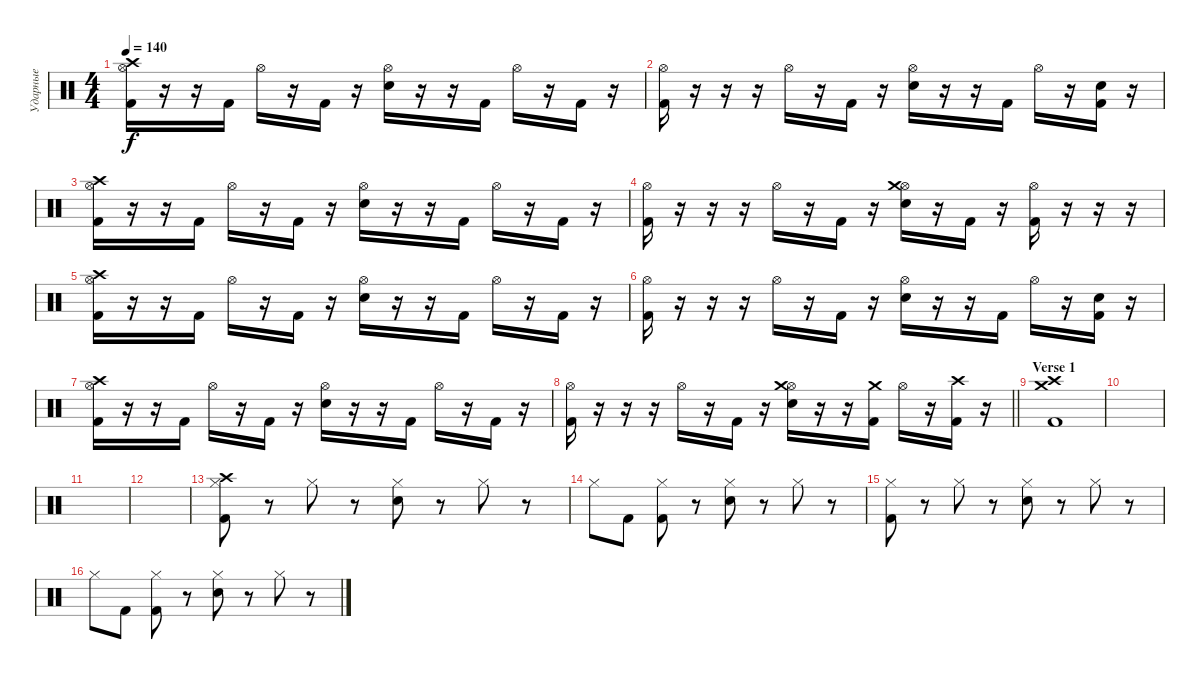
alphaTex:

\track ("Ударные" "Ударные") {instrument percussion}
\staff {score}
\articulation defaults
\ts (4 4)
\tempo 140
\clef neutral
\ks c
("Hi-Hat (open)" "Crash high (hit)" "Kick (hit) 2").16{dy f} r.16 r.16 "Kick (hit) 2".16 "Hi-Hat (open)".16 r.16 "Kick (hit) 2".16 r.16 ("Hi-Hat (open)" "Snare (hit) 2").16 r.16 r.16 "Kick (hit) 2".16 "Hi-Hat (open)".16 r.16 "Kick (hit) 2".16 r.16 |
("Hi-Hat (open)" "Kick (hit) 2").16 r.16 r.16 r.16 "Hi-Hat (open)".16 r.16 "Kick (hit) 2".16 r.16 ("Hi-Hat (open)" "Snare (hit) 2").16 r.16 r.16 "Kick (hit) 2".16 "Hi-Hat (open)".16 r.16 ("Snare (hit) 2" "Kick (hit) 2").16 r.16 |
("Hi-Hat (open)" "Crash high (hit)" "Kick (hit) 2").16 r.16 r.16 "Kick (hit) 2".16 "Hi-Hat (open)".16 r.16 "Kick (hit) 2".16 r.16 ("Hi-Hat (open)" "Snare (hit) 2").16 r.16 r.16 "Kick (hit) 2".16 "Hi-Hat (open)".16 r.16 "Kick (hit) 2".16 r.16 |
("Hi-Hat (open)" "Kick (hit) 2").16 r.16 r.16 r.16 "Hi-Hat (open)".16 r.16 "Kick (hit) 2".16 r.16 ("Hi-Hat (open)" "Crash medium (hit)" "Snare (hit) 2").16 r.16 "Kick (hit) 2".16 r.16 ("Hi-Hat (open)" "Kick (hit) 2").16 r.16 r.16 r.16 |
("Hi-Hat (open)" "Crash high (hit)" "Kick (hit) 2").16 r.16 r.16 "Kick (hit) 2".16 "Hi-Hat (open)".16 r.16 "Kick (hit) 2".16 r.16 ("Hi-Hat (open)" "Snare (hit) 2").16 r.16 r.16 "Kick (hit) 2".16 "Hi-Hat (open)".16 r.16 "Kick (hit) 2".16 r.16 |
("Hi-Hat (open)" "Kick (hit) 2").16 r.16 r.16 r.16 "Hi-Hat (open)".16 r.16 "Kick (hit) 2".16 r.16 ("Hi-Hat (open)" "Snare (hit) 2").16 r.16 r.16 "Kick (hit) 2".16 "Hi-Hat (open)".16 r.16 ("Snare (hit) 2" "Kick (hit) 2").16 r.16 |
("Hi-Hat (open)" "Crash high (hit)" "Kick (hit) 2").16 r.16 r.16 "Kick (hit) 2".16 "Hi-Hat (open)".16 r.16 "Kick (hit) 2".16 r.16 ("Hi-Hat (open)" "Snare (hit) 2").16 r.16 r.16 "Kick (hit) 2".16 "Hi-Hat (open)".16 r.16 "Kick (hit) 2".16 r.16 |
\barLineRight lightlight
("Hi-Hat (open)" "Kick (hit) 2").16 r.16 r.16 r.16 "Hi-Hat (open)".16 r.16 "Kick (hit) 2".16 r.16 ("Hi-Hat (open)" "Crash medium (hit)" "Snare (hit) 2").16 r.16 r.16 ("Crash medium (hit)" "Kick (hit) 2").16 "Hi-Hat (open)".16 r.16 ("Crash high (hit)" "Kick (hit) 2").16 r.16 |
\section ("" "Verse 1")
("Crash medium (hit)" "Crash high (hit)" "Kick (hit) 2").1 |
|
|
|
("Hi-Hat (closed)" "Crash high (hit)" "Kick (hit) 2").8 r.8 "Hi-Hat (closed)".8 r.8 ("Hi-Hat (closed)" "Snare (hit) 2").8 r.8 "Hi-Hat (closed)".8 r.8 |
"Hi-Hat (closed)".8 "Kick (hit) 2".8 ("Hi-Hat (closed)" "Kick (hit) 2").8 r.8 ("Hi-Hat (closed)" "Snare (hit) 2").8 r.8 "Hi-Hat (closed)".8 r.8 |
("Hi-Hat (closed)" "Kick (hit) 2").8 r.8 "Hi-Hat (closed)".8 r.8 ("Hi-Hat (closed)" "Snare (hit) 2").8 r.8 "Hi-Hat (closed)".8 r.8 |
"Hi-Hat (closed)".8 "Kick (hit) 2".8 ("Hi-Hat (closed)" "Kick (hit) 2").8 r.8 ("Hi-Hat (closed)" "Snare (hit) 2").8 r.8 "Hi-Hat (closed)".8 r.8
